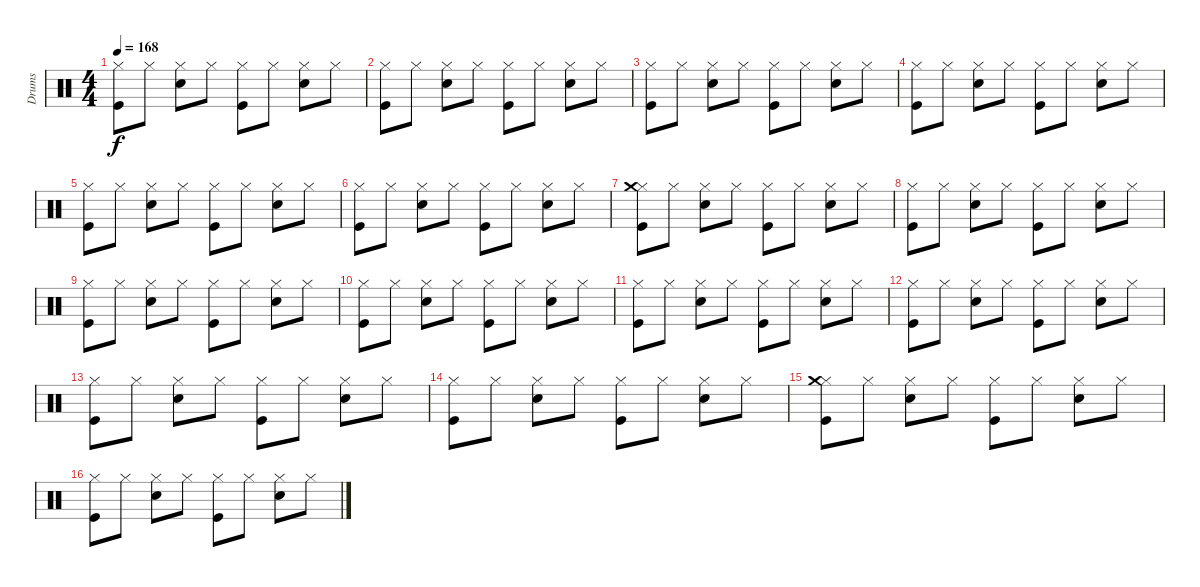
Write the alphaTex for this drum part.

\track ("Drums" "Drums") {instrument percussion}
\staff {score}
\articulation defaults
\ts (4 4)
\tempo 168
\clef neutral
\ks c
("Kick (hit)" "Hi-Hat (closed)").8{dy f} "Hi-Hat (closed)".8 ("Snare (hit) 2" "Hi-Hat (closed)").8 "Hi-Hat (closed)".8 ("Kick (hit)" "Hi-Hat (closed)").8 "Hi-Hat (closed)".8 ("Snare (hit) 2" "Hi-Hat (closed)").8 "Hi-Hat (closed)".8 |
("Kick (hit)" "Hi-Hat (closed)").8 "Hi-Hat (closed)".8 ("Snare (hit) 2" "Hi-Hat (closed)").8 "Hi-Hat (closed)".8 ("Kick (hit)" "Hi-Hat (closed)").8 "Hi-Hat (closed)".8 ("Snare (hit) 2" "Hi-Hat (closed)").8 "Hi-Hat (closed)".8 |
("Kick (hit)" "Hi-Hat (closed)").8 "Hi-Hat (closed)".8 ("Snare (hit) 2" "Hi-Hat (closed)").8 "Hi-Hat (closed)".8 ("Kick (hit)" "Hi-Hat (closed)").8 "Hi-Hat (closed)".8 ("Snare (hit) 2" "Hi-Hat (closed)").8 "Hi-Hat (closed)".8 |
("Kick (hit)" "Hi-Hat (closed)").8 "Hi-Hat (closed)".8 ("Snare (hit) 2" "Hi-Hat (closed)").8 "Hi-Hat (closed)".8 ("Kick (hit)" "Hi-Hat (closed)").8 "Hi-Hat (closed)".8 ("Snare (hit) 2" "Hi-Hat (closed)").8 "Hi-Hat (closed)".8 |
("Kick (hit)" "Hi-Hat (closed)").8 "Hi-Hat (closed)".8 ("Snare (hit) 2" "Hi-Hat (closed)").8 "Hi-Hat (closed)".8 ("Kick (hit)" "Hi-Hat (closed)").8 "Hi-Hat (closed)".8 ("Snare (hit) 2" "Hi-Hat (closed)").8 "Hi-Hat (closed)".8 |
("Kick (hit)" "Hi-Hat (closed)").8 "Hi-Hat (closed)".8 ("Snare (hit) 2" "Hi-Hat (closed)").8 "Hi-Hat (closed)".8 ("Kick (hit)" "Hi-Hat (closed)").8 "Hi-Hat (closed)".8 ("Snare (hit) 2" "Hi-Hat (closed)").8 "Hi-Hat (closed)".8 |
("Kick (hit)" "Hi-Hat (closed)" "Crash medium (hit)").8 "Hi-Hat (closed)".8 ("Snare (hit) 2" "Hi-Hat (closed)").8 "Hi-Hat (closed)".8 ("Kick (hit)" "Hi-Hat (closed)").8 "Hi-Hat (closed)".8 ("Snare (hit) 2" "Hi-Hat (closed)").8 "Hi-Hat (closed)".8 |
("Kick (hit)" "Hi-Hat (closed)").8 "Hi-Hat (closed)".8 ("Snare (hit) 2" "Hi-Hat (closed)").8 "Hi-Hat (closed)".8 ("Kick (hit)" "Hi-Hat (closed)").8 "Hi-Hat (closed)".8 ("Snare (hit) 2" "Hi-Hat (closed)").8 "Hi-Hat (closed)".8 |
("Kick (hit)" "Hi-Hat (closed)").8 "Hi-Hat (closed)".8 ("Snare (hit) 2" "Hi-Hat (closed)").8 "Hi-Hat (closed)".8 ("Kick (hit)" "Hi-Hat (closed)").8 "Hi-Hat (closed)".8 ("Snare (hit) 2" "Hi-Hat (closed)").8 "Hi-Hat (closed)".8 |
("Kick (hit)" "Hi-Hat (closed)").8 "Hi-Hat (closed)".8 ("Snare (hit) 2" "Hi-Hat (closed)").8 "Hi-Hat (closed)".8 ("Kick (hit)" "Hi-Hat (closed)").8 "Hi-Hat (closed)".8 ("Snare (hit) 2" "Hi-Hat (closed)").8 "Hi-Hat (closed)".8 |
("Kick (hit)" "Hi-Hat (closed)").8 "Hi-Hat (closed)".8 ("Snare (hit) 2" "Hi-Hat (closed)").8 "Hi-Hat (closed)".8 ("Kick (hit)" "Hi-Hat (closed)").8 "Hi-Hat (closed)".8 ("Snare (hit) 2" "Hi-Hat (closed)").8 "Hi-Hat (closed)".8 |
("Kick (hit)" "Hi-Hat (closed)").8 "Hi-Hat (closed)".8 ("Snare (hit) 2" "Hi-Hat (closed)").8 "Hi-Hat (closed)".8 ("Kick (hit)" "Hi-Hat (closed)").8 "Hi-Hat (closed)".8 ("Snare (hit) 2" "Hi-Hat (closed)").8 "Hi-Hat (closed)".8 |
("Kick (hit)" "Hi-Hat (closed)").8 "Hi-Hat (closed)".8 ("Snare (hit) 2" "Hi-Hat (closed)").8 "Hi-Hat (closed)".8 ("Kick (hit)" "Hi-Hat (closed)").8 "Hi-Hat (closed)".8 ("Snare (hit) 2" "Hi-Hat (closed)").8 "Hi-Hat (closed)".8 |
("Kick (hit)" "Hi-Hat (closed)").8 "Hi-Hat (closed)".8 ("Snare (hit) 2" "Hi-Hat (closed)").8 "Hi-Hat (closed)".8 ("Kick (hit)" "Hi-Hat (closed)").8 "Hi-Hat (closed)".8 ("Snare (hit) 2" "Hi-Hat (closed)").8 "Hi-Hat (closed)".8 |
("Kick (hit)" "Hi-Hat (closed)" "Crash medium (hit)").8 "Hi-Hat (closed)".8 ("Snare (hit) 2" "Hi-Hat (closed)").8 "Hi-Hat (closed)".8 ("Kick (hit)" "Hi-Hat (closed)").8 "Hi-Hat (closed)".8 ("Snare (hit) 2" "Hi-Hat (closed)").8 "Hi-Hat (closed)".8 |
("Kick (hit)" "Hi-Hat (closed)").8 "Hi-Hat (closed)".8 ("Snare (hit) 2" "Hi-Hat (closed)").8 "Hi-Hat (closed)".8 ("Kick (hit)" "Hi-Hat (closed)").8 "Hi-Hat (closed)".8 ("Snare (hit) 2" "Hi-Hat (closed)").8 "Hi-Hat (closed)".8
